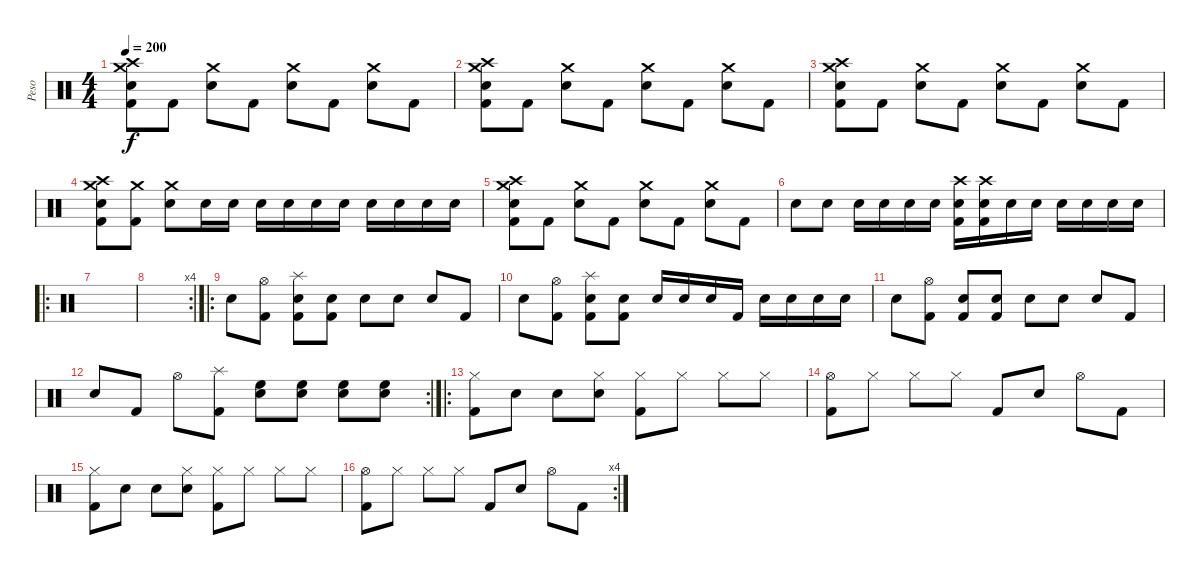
\track ("Peso" "Peso") {instrument percussion}
\staff {score}
\articulation defaults
\ts (4 4)
\tempo 200
\clef neutral
\ks c
("Crash high (hit)" "Crash medium (hit)" "Snare (hit) 2" "Kick (hit) 2").8{dy f} "Kick (hit) 2".8 ("Crash medium (hit)" "Snare (hit) 2").8 "Kick (hit) 2".8 ("Crash medium (hit)" "Snare (hit) 2").8 "Kick (hit) 2".8 ("Crash medium (hit)" "Snare (hit) 2").8 "Kick (hit) 2".8 |
("Crash high (hit)" "Crash medium (hit)" "Snare (hit) 2" "Kick (hit) 2").8 "Kick (hit) 2".8 ("Crash medium (hit)" "Snare (hit) 2").8 "Kick (hit) 2".8 ("Crash medium (hit)" "Snare (hit) 2").8 "Kick (hit) 2".8 ("Crash medium (hit)" "Snare (hit) 2").8 "Kick (hit) 2".8 |
("Crash high (hit)" "Crash medium (hit)" "Snare (hit) 2" "Kick (hit) 2").8 "Kick (hit) 2".8 ("Crash medium (hit)" "Snare (hit) 2").8 "Kick (hit) 2".8 ("Crash medium (hit)" "Snare (hit) 2").8 "Kick (hit) 2".8 ("Crash medium (hit)" "Snare (hit) 2").8 "Kick (hit) 2".8 |
("Crash high (hit)" "Crash medium (hit)" "Snare (hit) 2" "Kick (hit) 2").8 ("Crash medium (hit)" "Kick (hit) 2").8 ("Crash medium (hit)" "Snare (hit) 2").8 "Snare (hit) 2".16 "Snare (hit) 2".16 "Snare (hit) 2".16 "Snare (hit) 2".16 "Snare (hit) 2".16 "Snare (hit) 2".16 "Snare (hit) 2".16 "Snare (hit) 2".16 "Snare (hit) 2".16 "Snare (hit) 2".16 |
("Crash high (hit)" "Crash medium (hit)" "Snare (hit) 2" "Kick (hit) 2").8 "Kick (hit) 2".8 ("Crash medium (hit)" "Snare (hit) 2").8 "Kick (hit) 2".8 ("Crash medium (hit)" "Snare (hit) 2").8 "Kick (hit) 2".8 ("Crash medium (hit)" "Snare (hit) 2").8 "Kick (hit) 2".8 |
"Snare (hit) 2".8 "Snare (hit) 2".8 "Snare (hit) 2".16 "Snare (hit) 2".16 "Snare (hit) 2".16 "Snare (hit) 2".16 ("Crash high (hit)" "Snare (hit)"{x} "Kick (hit) 2").16 ("Crash high (hit)" "Snare (hit)"{x} "Kick (hit) 2").16 "Snare (hit)"{x}.16 "Snare (hit)"{x}.16 "Snare (hit)"{x}.16 "Snare (hit)"{x}.16 "Snare (hit)"{x}.16 "Snare (hit)"{x}.16 |
\ro
|
\rc 4
|
\ro "Snare (hit) 2".8
("Hi-Hat (open)" "Kick (hit) 2").8 ("Splash (hit)" "Snare (hit)"{x} "Kick (hit) 2").8 ("Snare (hit)"{x} "Kick (hit) 2").8 "Snare (hit) 2".8 "Snare (hit) 2"{x}.8 "Snare (hit) 2".8 "Kick (hit) 2".8 |
"Snare (hit) 2".8 ("Hi-Hat (open)" "Kick (hit) 2").8 ("Splash (hit)" "Snare (hit)"{x} "Kick (hit) 2").8 ("Snare (hit)"{x} "Kick (hit) 2").8 "Snare (hit) 2".16 "Snare (hit) 2".16 "Snare (hit) 2".16 "Kick (hit) 2".16 "Snare (hit) 2".16 "Snare (hit) 2".16 "Snare (hit) 2".16 "Snare (hit) 2".16 |
"Snare (hit) 2".8 ("Hi-Hat (open)" "Kick (hit) 2").8 ("Snare (hit)"{x} "Kick (hit) 2").8 ("Snare (hit)"{x} "Kick (hit) 2").8 "Snare (hit) 2".8 "Snare (hit) 2"{x}.8 "Snare (hit) 2".8 "Kick (hit) 2".8 |
\rc 2 "Snare (hit) 2".8 "Kick (hit) 2".8 "Hi-Hat (open)".8
("Splash (hit)" "Kick (hit) 2").8 ("Snare (hit) 2" "High Floor Tom (hit)").8 ("Snare (hit) 2" "High Floor Tom (hit)").8 ("Snare (hit) 2" "High Floor Tom (hit)").8 ("Snare (hit) 2" "High Floor Tom (hit)").8 |
\ro
("Hi-Hat (closed)" "Kick (hit) 2").8 "Snare (hit)"{x}.8 "Snare (hit)"{x}.8 ("Hi-Hat (closed)" "Snare (hit) 2").8 ("Hi-Hat (closed)" "Kick (hit) 2").8 "Hi-Hat (closed)"{x}.8 "Hi-Hat (closed)"{x}.8 "Hi-Hat (closed)".8 |
("Hi-Hat (open)" "Kick (hit) 2").8 "Hi-Hat (closed)"{x}.8 "Hi-Hat (closed)".8 "Hi-Hat (closed)"{x}.8 "Kick (hit) 2".8 "Snare (hit) 2".8 "Hi-Hat (open)".8 "Kick (hit) 2".8 |
("Hi-Hat (closed)" "Kick (hit) 2").8 "Snare (hit)"{x}.8 "Snare (hit)"{x}.8 ("Hi-Hat (closed)" "Snare (hit) 2").8 ("Hi-Hat (closed)" "Kick (hit) 2").8 "Hi-Hat (closed)"{x}.8 "Hi-Hat (closed)"{x}.8 "Hi-Hat (closed)".8 |
\rc 4
("Hi-Hat (open)" "Kick (hit) 2").8 "Hi-Hat (closed)"{x}.8 "Hi-Hat (closed)".8 "Hi-Hat (closed)"{x}.8 "Kick (hit) 2".8 "Snare (hit) 2".8 "Hi-Hat (open)".8 "Kick (hit) 2".8
